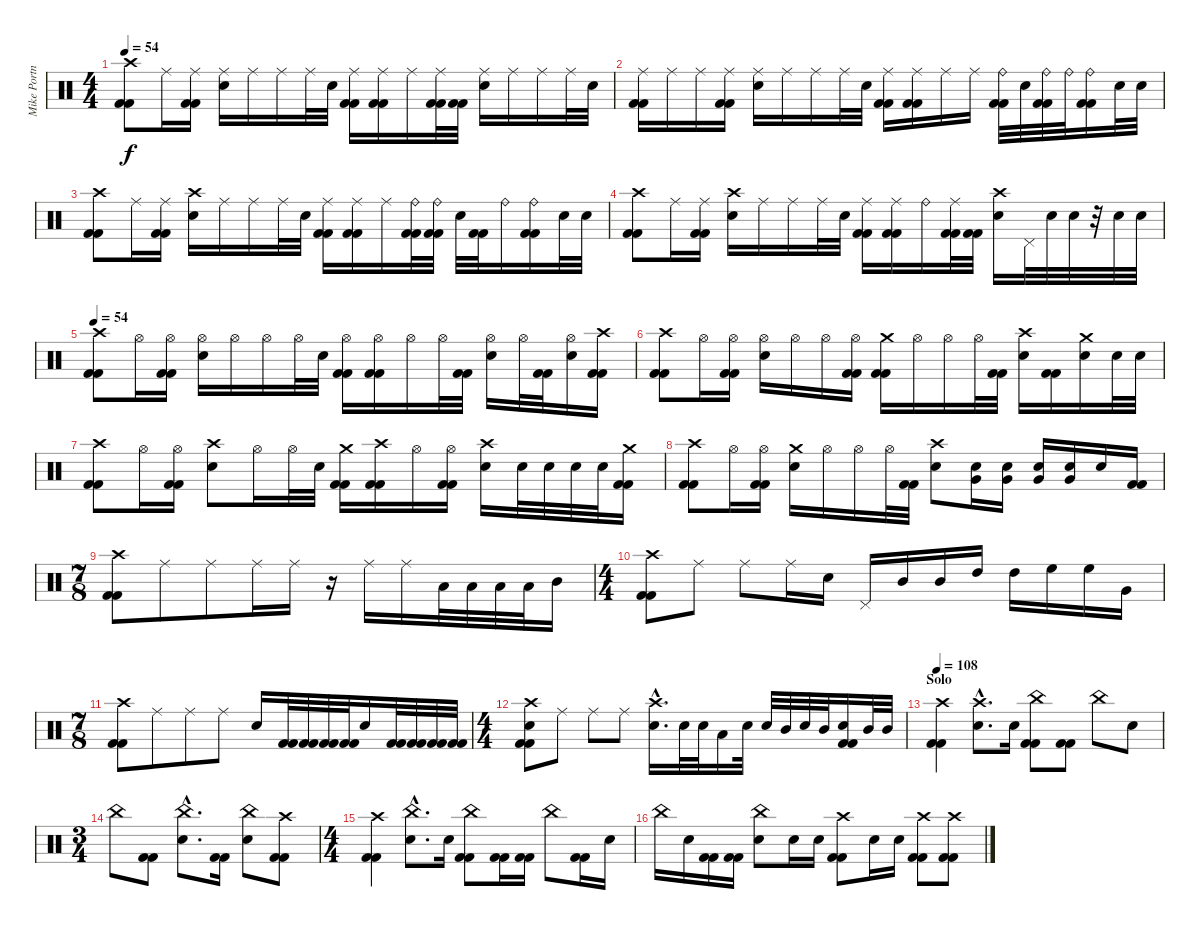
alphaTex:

\track ("Mike Portnoy - Drums" "Mike Portn") {instrument percussion}
\staff {score}
\articulation defaults
\ts (4 4)
\tempo 54
\clef neutral
\ks c
("Crash high (hit)" "Kick (hit) 2" "Kick (hit) 2").8{dy f} "Ride (middle)".16 ("Ride (middle)" "Kick (hit) 2" "Kick (hit) 2").16 ("Ride (middle)" "Snare (hit) 2").16 "Ride (middle)".16 "Ride (middle)".16 "Ride (middle)".32 "Snare (hit) 2".32 ("Ride (middle)" "Kick (hit) 2" "Kick (hit) 2").16 ("Ride (middle)" "Kick (hit) 2" "Kick (hit) 2").16 "Ride (middle)".16 ("Ride (middle)" "Kick (hit) 2" "Kick (hit) 2").32 ("Kick (hit) 2" "Kick (hit) 2").32 ("Ride (middle)" "Snare (hit) 2").16 "Ride (middle)".16 "Ride (middle)".16 "Ride (middle)".32 "Snare (hit) 2".32 |
("Ride (middle)" "Kick (hit) 2" "Kick (hit) 2").16 "Ride (middle)".16 "Ride (middle)".16 ("Ride (middle)" "Kick (hit) 2" "Kick (hit) 2").16 ("Ride (middle)" "Snare (hit) 2").16 "Ride (middle)".16 "Ride (middle)".16 "Ride (middle)".32 "Snare (hit) 2".32 ("Ride (middle)" "Kick (hit) 2" "Kick (hit) 2").16 ("Ride (middle)" "Kick (hit) 2" "Kick (hit) 2").16 "Ride (middle)".16 "Ride (middle)".16 ("Ride (bell)" "Kick (hit) 2" "Kick (hit) 2").32 "Snare (hit) 2".32 ("Ride (bell)" "Kick (hit) 2" "Kick (hit) 2").32 "Ride (bell)".32 ("Ride (bell)" "Kick (hit) 2" "Kick (hit) 2").16 "Snare (hit) 2".32 "Snare (hit) 2".32 |
("Crash high (hit)" "Kick (hit) 2" "Kick (hit) 2").8 "Ride (middle)".16 ("Ride (middle)" "Kick (hit) 2" "Kick (hit) 2").16 ("Crash high (hit)" "Snare (hit) 2").16 "Ride (middle)".16 "Ride (middle)".16 "Ride (middle)".32 "Snare (hit) 2".32 ("Ride (middle)" "Kick (hit) 2" "Kick (hit) 2").16 ("Ride (middle)" "Kick (hit) 2" "Kick (hit) 2").16 "Ride (middle)".16 ("Ride (bell)" "Kick (hit) 2" "Kick (hit) 2").32 ("Ride (bell)" "Kick (hit) 2" "Kick (hit) 2").32 "Snare (hit) 2".32 ("Kick (hit) 2" "Kick (hit) 2").32 "Ride (bell)".16 ("Ride (bell)" "Kick (hit) 2" "Kick (hit) 2").16 "Snare (hit) 2".32 "Snare (hit) 2".32 |
("Crash high (hit)" "Kick (hit) 2" "Kick (hit) 2").8 "Ride (middle)".16 ("Ride (middle)" "Kick (hit) 2" "Kick (hit) 2").16 ("Crash high (hit)" "Snare (hit) 2").16 "Ride (middle)".16 "Ride (middle)".16 "Ride (middle)".32 "Snare (hit) 2".32 ("Ride (middle)" "Kick (hit) 2" "Kick (hit) 2").16 ("Ride (middle)" "Kick (hit) 2" "Kick (hit) 2").16 "Ride (bell)".16 ("Ride (middle)" "Kick (hit) 2" "Kick (hit) 2").32 ("Kick (hit) 2" "Kick (hit) 2").32 ("Crash high (hit)" "Snare (hit) 2").16 "Pedal Hi-Hat (hit)".32 "Snare (hit) 2".32 "Snare (hit) 2".32 r.32 "Snare (hit) 2".32 "Snare (hit) 2".32 |
\tempo 54
("Crash high (hit)" "Kick (hit) 2" "Kick (hit) 2").8 "Hi-Hat (open)".16 ("Hi-Hat (open)" "Kick (hit) 2" "Kick (hit) 2").16 ("Hi-Hat (open)" "Snare (hit) 2").16 "Hi-Hat (open)".16 "Hi-Hat (open)".16 "Hi-Hat (open)".32 "Snare (hit) 2".32 ("Hi-Hat (open)" "Kick (hit) 2" "Kick (hit) 2").16 ("Hi-Hat (open)" "Kick (hit) 2" "Kick (hit) 2").16 "Hi-Hat (open)".16 "Hi-Hat (open)".32 ("Kick (hit) 2" "Kick (hit) 2").32 ("Hi-Hat (open)" "Snare (hit) 2").16 "Hi-Hat (open)".32 ("Kick (hit) 2" "Kick (hit) 2").32 ("Hi-Hat (open)" "Snare (hit) 2").16 ("Crash high (hit)" "Kick (hit) 2" "Kick (hit) 2").16 |
("Crash high (hit)" "Kick (hit) 2" "Kick (hit) 2").8 "Hi-Hat (open)".16 ("Hi-Hat (open)" "Kick (hit) 2" "Kick (hit) 2").16 ("Hi-Hat (open)" "Snare (hit) 2").16 "Hi-Hat (open)".16 "Hi-Hat (open)".16 ("Hi-Hat (open)" "Kick (hit) 2" "Kick (hit) 2").16 ("Crash medium (hit)" "Kick (hit) 2" "Kick (hit) 2").16 "Hi-Hat (open)".16 "Hi-Hat (open)".16 "Hi-Hat (open)".32 ("Kick (hit) 2" "Kick (hit) 2").32 ("Crash high (hit)" "Snare (hit) 2").16 ("Kick (hit) 2" "Kick (hit) 2").16 ("Crash medium (hit)" "Snare (hit) 2").16 "Snare (hit) 2".32 "Snare (hit) 2".32 |
("Crash high (hit)" "Kick (hit) 2" "Kick (hit) 2").8 "Hi-Hat (open)".16 ("Hi-Hat (open)" "Kick (hit) 2" "Kick (hit) 2").16 ("Crash high (hit)" "Snare (hit) 2").8 "Hi-Hat (open)".16 "Hi-Hat (open)".32 "Snare (hit) 2".32 ("Crash medium (hit)" "Kick (hit) 2" "Kick (hit) 2").16 ("Crash high (hit)" "Kick (hit) 2" "Kick (hit) 2").16 "Hi-Hat (open)".16 ("Hi-Hat (open)" "Kick (hit) 2" "Kick (hit) 2").16 ("Crash high (hit)" "Snare (hit) 2").16 "Snare (hit) 2".32 "Snare (hit) 2".32 "Snare (hit) 2".32 "Snare (hit) 2".32 ("Crash medium (hit)" "Kick (hit) 2" "Kick (hit) 2").16 |
("Crash high (hit)" "Kick (hit) 2" "Kick (hit) 2").8 "Hi-Hat (open)".16 ("Hi-Hat (open)" "Kick (hit) 2" "Kick (hit) 2").16 ("Crash medium (hit)" "Snare (hit) 2").16 "Hi-Hat (open)".16 "Hi-Hat (open)".16 "Hi-Hat (open)".32 ("Kick (hit) 2" "Kick (hit) 2").32 ("Crash high (hit)" "Snare (hit) 2").8 ("Snare (hit) 2" "Very Low Tom (hit)").16 ("Snare (hit) 2" "Very Low Tom (hit)").16 ("Snare (hit) 2" "Very Low Tom (hit)").16 ("Snare (hit) 2" "Very Low Tom (hit)").16 "Snare (hit) 2".16 ("Kick (hit) 2" "Kick (hit) 2").16 |
\ts (7 8)
("Crash high (hit)" "Kick (hit) 2" "Kick (hit) 2").8 "Ride (middle)".8 "Ride (middle)".8 "Ride (middle)".16 "Ride (middle)".16 r.16 "Ride (middle)".16 "Ride (middle)".16 "Low Tom (hit)".32 "Low Tom (hit)".32 "Low Tom (hit)".32 "Low Tom (hit)".32 "Mid Tom (hit)".16 |
\ts (4 4)
("Crash high (hit)" "Kick (hit) 2" "Kick (hit) 2").8 "Ride (middle)".8 "Ride (middle)".8 "Ride (middle)".16 "Snare (hit) 2".16 "Pedal Hi-Hat (hit)".16 "Mid Tom (hit)".16 "Mid Tom (hit)".16 "High Tom (hit)".16 "High Tom (hit)".16 "High Floor Tom (hit)".16 "High Floor Tom (hit)".16 "Very Low Tom (hit)".16 |
\ts (7 8)
("Crash high (hit)" "Kick (hit) 2" "Kick (hit) 2").8 "Ride (middle)".8 "Ride (middle)".8 "Ride (middle)".8 "Snare (hit) 2".16 ("Kick (hit) 2" "Kick (hit) 2").32 ("Kick (hit) 2" "Kick (hit) 2").32 ("Kick (hit) 2" "Kick (hit) 2").32 ("Kick (hit) 2" "Kick (hit) 2").32 "Snare (hit) 2".16 ("Kick (hit) 2" "Kick (hit) 2").32 ("Kick (hit) 2" "Kick (hit) 2").32 ("Kick (hit) 2" "Kick (hit) 2").32 ("Kick (hit) 2" "Kick (hit) 2").32 |
\ts (4 4)
("Crash high (hit)" "Snare (hit) 2" "Kick (hit) 2" "Kick (hit) 2").8 "Ride (middle)".8 "Ride (middle)".8 "Ride (middle)".8 ("Crash high (hit)"{hac} "Snare (hit) 2"{hac}).16{d} "Snare (hit) 2".32 "Snare (hit) 2".32 "Low Tom (hit)".16 "Snare (hit) 2".32 "Snare (hit) 2".32 "Mid Tom (hit)".32 "Snare (hit) 2".32 "Mid Tom (hit)".32 ("Snare (hit) 2" "Kick (hit) 2" "Kick (hit) 2").16 "Mid Tom (hit)".32 "Mid Tom (hit)".32 |
\section ("" "Solo")
\tempo 108
("Crash high (hit)" "Kick (hit) 2" "Kick (hit) 2").4 ("Crash high (hit)"{hac} "Snare (hit) 2"{hac}).8{d} "Snare (hit) 2".16 ("China (hit)" "Kick (hit) 2" "Kick (hit) 2").8 ("Kick (hit) 2" "Kick (hit) 2").8 "China (hit)".8 "Snare (hit) 2".8 |
\ts (3 4)
"China (hit)".8 ("Kick (hit) 2" "Kick (hit) 2").8 ("China (hit)"{hac} "Snare (hit) 2"{hac}).8{d} ("Kick (hit) 2" "Kick (hit) 2").16 ("China (hit)" "Snare (hit) 2").8 ("Crash high (hit)" "Kick (hit) 2" "Kick (hit) 2").8 |
\ts (4 4)
("Crash high (hit)" "Kick (hit) 2" "Kick (hit) 2").4 ("China (hit)"{hac} "Snare (hit) 2"{hac}).8{d} "Snare (hit) 2".16 ("China (hit)" "Kick (hit) 2" "Kick (hit) 2").8 ("Kick (hit) 2" "Kick (hit) 2").16 ("Kick (hit) 2" "Kick (hit) 2").16 "China (hit)".8 ("Kick (hit) 2" "Kick (hit) 2").16 "Snare (hit) 2".16 |
"China (hit)".16 "Snare (hit) 2".16 ("Kick (hit) 2" "Kick (hit) 2").16 ("Kick (hit) 2" "Kick (hit) 2").16 ("China (hit)" "Snare (hit) 2").8 "Snare (hit) 2".16 "Snare (hit) 2".16 ("Crash high (hit)" "Kick (hit) 2" "Kick (hit) 2").8 "Snare (hit) 2".16 "Snare (hit) 2".16 ("Crash high (hit)" "Kick (hit) 2" "Kick (hit) 2").8 ("Crash high (hit)" "Kick (hit) 2" "Kick (hit) 2").8
